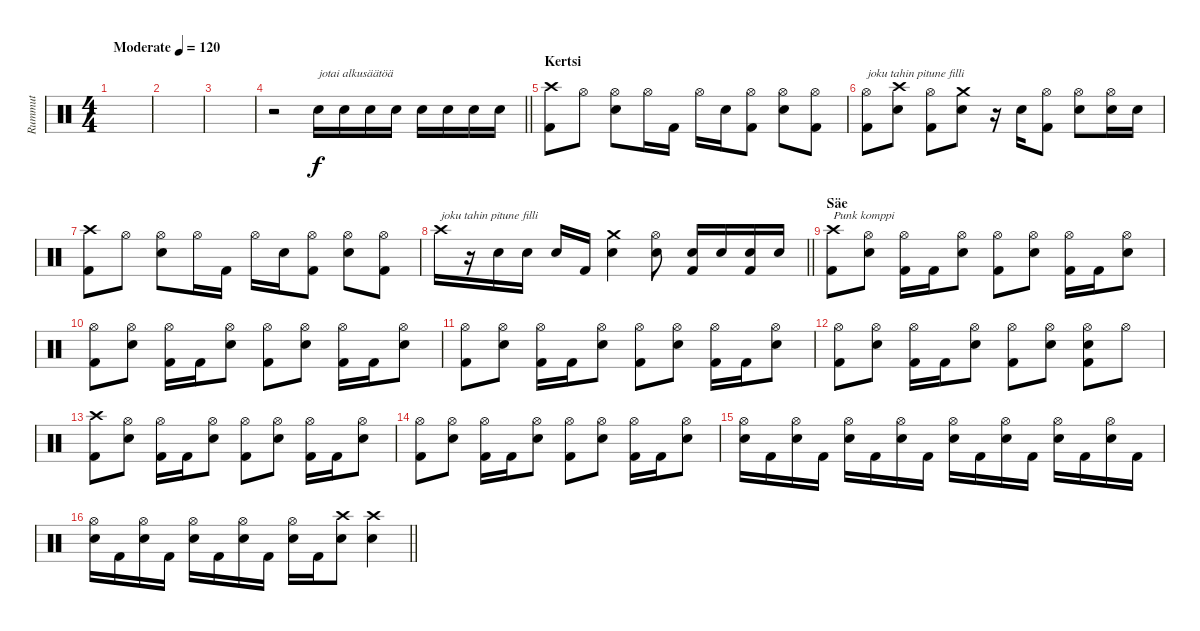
\track ("Rummut" "Rummut") {instrument percussion}
\staff {score}
\articulation defaults
\ts (4 4)
\tempo (120 "Moderate")
\clef neutral
\ks c
|
|
|
\barLineRight lightlight
r.2 "Snare (hit) 2".16{txt "jotai alkusäätöä"} "Snare (hit) 2".16 "Snare (hit) 2".16 "Snare (hit) 2".16 "Snare (hit) 2".16 "Snare (hit) 2".16 "Snare (hit) 2".16 "Snare (hit) 2".16 |
\section ("" "Kertsi")
("Crash high (hit)" "Kick (hit) 2").8 "Hi-Hat (open)".8 ("Hi-Hat (open)" "Snare (hit) 2").8 "Hi-Hat (open)".16 "Kick (hit) 2".16 "Hi-Hat (open)".16 "Snare (hit) 2".16 ("Hi-Hat (open)" "Kick (hit) 2").8 ("Hi-Hat (open)" "Snare (hit) 2").8 ("Hi-Hat (open)" "Kick (hit) 2").8 |
("Hi-Hat (open)" "Kick (hit) 2").8{txt "joku tahin pitune filli"} ("Crash high (hit)" "Snare (hit) 2").8 ("Hi-Hat (open)" "Kick (hit) 2").8 ("Crash medium (hit)" "Snare (hit) 2").8 r.16 "Snare (hit) 2".16 ("Hi-Hat (open)" "Kick (hit) 2").8 ("Hi-Hat (open)" "Snare (hit) 2").8 ("Hi-Hat (open)" "Snare (hit) 2").16 "Snare (hit) 2".16 |
("Crash high (hit)" "Kick (hit) 2").8 "Hi-Hat (open)".8 ("Hi-Hat (open)" "Snare (hit) 2").8 "Hi-Hat (open)".16 "Kick (hit) 2".16 "Hi-Hat (open)".16 "Snare (hit) 2".16 ("Hi-Hat (open)" "Kick (hit) 2").8 ("Hi-Hat (open)" "Snare (hit) 2").8 ("Hi-Hat (open)" "Kick (hit) 2").8 |
\barLineRight lightlight "Crash high (hit)".16{txt "joku tahin pitune filli"}
r.16 "Snare (hit) 2".16 "Snare (hit) 2".16 "Snare (hit) 2".16 "Kick (hit) 2".16 ("Crash medium (hit)" "Snare (hit) 2").4 ("Hi-Hat (open)" "Snare (hit) 2").8 ("Snare (hit) 2" "Kick (hit) 2").16 "Snare (hit) 2".16 ("Snare (hit) 2" "Kick (hit) 2").16 "Snare (hit) 2".16 |
\section ("" "Säe")
("Crash high (hit)" "Kick (hit) 2").8{txt "Punk komppi"} ("Hi-Hat (open)" "Snare (hit) 2").8 ("Hi-Hat (open)" "Kick (hit) 2").16 "Kick (hit) 2".16 ("Hi-Hat (open)" "Snare (hit) 2").8 ("Hi-Hat (open)" "Kick (hit) 2").8 ("Hi-Hat (open)" "Snare (hit) 2").8 ("Hi-Hat (open)" "Kick (hit) 2").16 "Kick (hit) 2".16 ("Hi-Hat (open)" "Snare (hit) 2").8 |
("Hi-Hat (open)" "Kick (hit) 2").8 ("Hi-Hat (open)" "Snare (hit) 2").8 ("Hi-Hat (open)" "Kick (hit) 2").16 "Kick (hit) 2".16 ("Hi-Hat (open)" "Snare (hit) 2").8 ("Hi-Hat (open)" "Kick (hit) 2").8 ("Hi-Hat (open)" "Snare (hit) 2").8 ("Hi-Hat (open)" "Kick (hit) 2").16 "Kick (hit) 2".16 ("Hi-Hat (open)" "Snare (hit) 2").8 |
("Hi-Hat (open)" "Kick (hit) 2").8 ("Hi-Hat (open)" "Snare (hit) 2").8 ("Hi-Hat (open)" "Kick (hit) 2").16 "Kick (hit) 2".16 ("Hi-Hat (open)" "Snare (hit) 2").8 ("Hi-Hat (open)" "Kick (hit) 2").8 ("Hi-Hat (open)" "Snare (hit) 2").8 ("Hi-Hat (open)" "Kick (hit) 2").16 "Kick (hit) 2".16 ("Hi-Hat (open)" "Snare (hit) 2").8 |
("Hi-Hat (open)" "Kick (hit) 2").8 ("Hi-Hat (open)" "Snare (hit) 2").8 ("Hi-Hat (open)" "Kick (hit) 2").16 "Kick (hit) 2".16 ("Hi-Hat (open)" "Snare (hit) 2").8 ("Hi-Hat (open)" "Kick (hit) 2").8 ("Hi-Hat (open)" "Snare (hit) 2").8 ("Hi-Hat (open)" "Snare (hit) 2" "Kick (hit) 2").8 "Hi-Hat (open)".8 |
("Crash high (hit)" "Kick (hit) 2").8 ("Hi-Hat (open)" "Snare (hit) 2").8 ("Hi-Hat (open)" "Kick (hit) 2").16 "Kick (hit) 2".16 ("Hi-Hat (open)" "Snare (hit) 2").8 ("Hi-Hat (open)" "Kick (hit) 2").8 ("Hi-Hat (open)" "Snare (hit) 2").8 ("Hi-Hat (open)" "Kick (hit) 2").16 "Kick (hit) 2".16 ("Hi-Hat (open)" "Snare (hit) 2").8 |
("Hi-Hat (open)" "Kick (hit) 2").8 ("Hi-Hat (open)" "Snare (hit) 2").8 ("Hi-Hat (open)" "Kick (hit) 2").16 "Kick (hit) 2".16 ("Hi-Hat (open)" "Snare (hit) 2").8 ("Hi-Hat (open)" "Kick (hit) 2").8 ("Hi-Hat (open)" "Snare (hit) 2").8 ("Hi-Hat (open)" "Kick (hit) 2").16 "Kick (hit) 2".16 ("Hi-Hat (open)" "Snare (hit) 2").8 |
("Hi-Hat (open)" "Snare (hit) 2").16 "Kick (hit) 2".16 ("Hi-Hat (open)" "Snare (hit) 2").16 "Kick (hit) 2".16 ("Hi-Hat (open)" "Snare (hit) 2").16 "Kick (hit) 2".16 ("Hi-Hat (open)" "Snare (hit) 2").16 "Kick (hit) 2".16 ("Hi-Hat (open)" "Snare (hit) 2").16 "Kick (hit) 2".16 ("Hi-Hat (open)" "Snare (hit) 2").16 "Kick (hit) 2".16 ("Hi-Hat (open)" "Snare (hit) 2").16 "Kick (hit) 2".16 ("Hi-Hat (open)" "Snare (hit) 2").16 "Kick (hit) 2".16 |
\barLineRight lightlight
("Hi-Hat (open)" "Snare (hit) 2").16 "Kick (hit) 2".16 ("Hi-Hat (open)" "Snare (hit) 2").16 "Kick (hit) 2".16 ("Hi-Hat (open)" "Snare (hit) 2").16 "Kick (hit) 2".16 ("Hi-Hat (open)" "Snare (hit) 2").16 "Kick (hit) 2".16 ("Hi-Hat (open)" "Snare (hit) 2").16 "Kick (hit) 2".16 ("Crash high (hit)" "Snare (hit) 2").8 ("Crash high (hit)" "Snare (hit) 2").4
